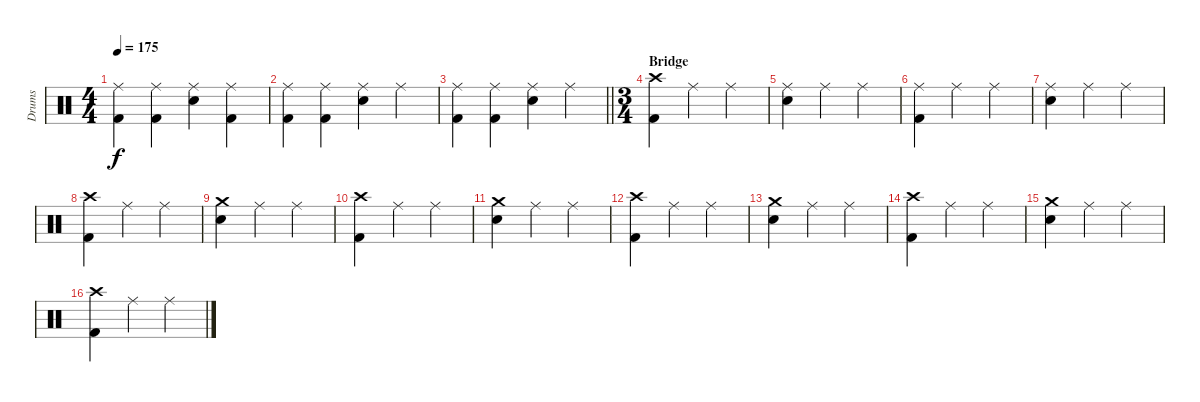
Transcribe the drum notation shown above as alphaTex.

\track ("Drums" "Drums") {instrument percussion}
\staff {score}
\articulation defaults
\ts (4 4)
\tempo 175
\clef neutral
\ks c
("Ride (middle)" "Kick (hit) 2").4{dy f} ("Ride (middle)" "Kick (hit) 2").4 ("Ride (middle)" "Electric Snare (hit)").4 ("Ride (middle)" "Kick (hit) 2").4 |
("Ride (middle)" "Kick (hit) 2").4 ("Ride (middle)" "Kick (hit) 2").4 ("Ride (middle)" "Electric Snare (hit)").4 "Ride (middle)".4 |
\barLineRight lightlight
("Ride (middle)" "Kick (hit) 2").4 ("Ride (middle)" "Kick (hit) 2").4 ("Ride (middle)" "Electric Snare (hit)").4 "Ride (middle)".4 |
\ts (3 4)
\section ("" "Bridge")
("Crash high (hit)" "Kick (hit) 2").4 "Ride (middle)".4 "Ride (middle)".4 |
("Ride (middle)" "Electric Snare (hit)").4 "Ride (middle)".4 "Ride (middle)".4 |
("Ride (middle)" "Kick (hit) 2").4 "Ride (middle)".4 "Ride (middle)".4 |
("Ride (middle)" "Electric Snare (hit)").4 "Ride (middle)".4 "Ride (middle)".4 |
("Crash high (hit)" "Kick (hit) 2").4 "Ride (middle)".4 "Ride (middle)".4 |
("Crash medium (hit)" "Electric Snare (hit)").4 "Ride (middle)".4 "Ride (middle)".4 |
("Crash high (hit)" "Kick (hit) 2").4 "Ride (middle)".4 "Ride (middle)".4 |
("Crash medium (hit)" "Electric Snare (hit)").4 "Ride (middle)".4 "Ride (middle)".4 |
("Crash high (hit)" "Kick (hit) 2").4 "Ride (middle)".4 "Ride (middle)".4 |
("Crash medium (hit)" "Electric Snare (hit)").4 "Ride (middle)".4 "Ride (middle)".4 |
("Crash high (hit)" "Kick (hit) 2").4 "Ride (middle)".4 "Ride (middle)".4 |
("Crash medium (hit)" "Electric Snare (hit)").4 "Ride (middle)".4 "Ride (middle)".4 |
("Crash high (hit)" "Kick (hit) 2").4 "Ride (middle)".4 "Ride (middle)".4
